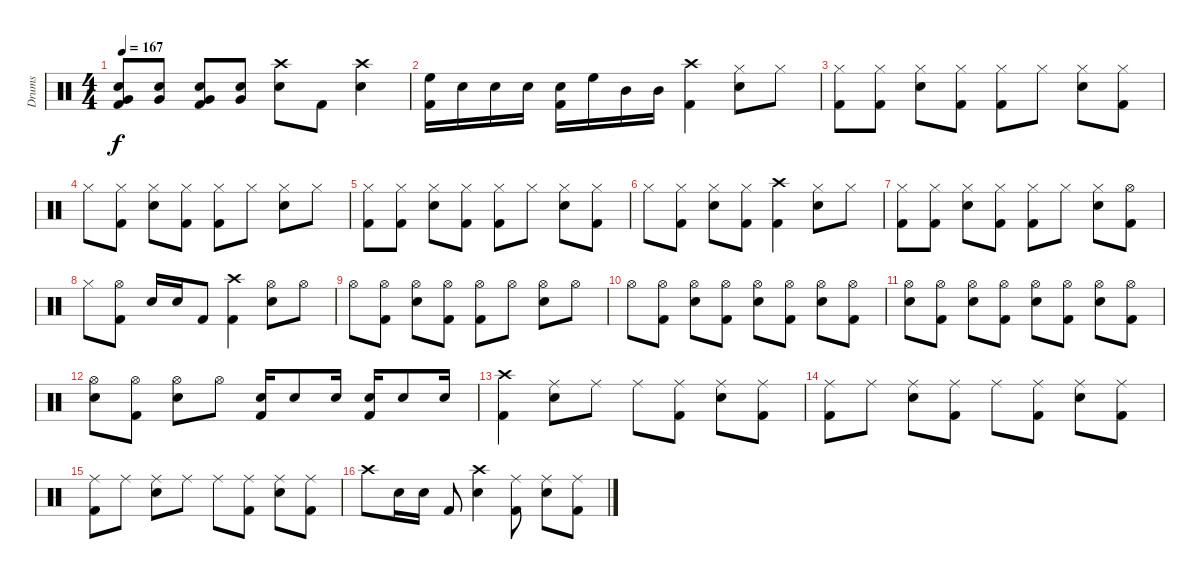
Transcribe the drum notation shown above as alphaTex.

\track ("Drums" "Drums") {instrument percussion}
\staff {score}
\articulation defaults
\ts (4 4)
\tempo 167
\clef neutral
\ks c
("Kick (hit) 2" "Snare (hit) 2" "Very Low Tom (hit)").8{dy f} ("Snare (hit) 2" "Very Low Tom (hit)").8 ("Kick (hit) 2" "Snare (hit) 2" "Very Low Tom (hit)").8 ("Snare (hit) 2" "Very Low Tom (hit)").8 ("Crash high (hit)" "Snare (hit) 2").8 "Kick (hit) 2".8 ("Crash high (hit)" "Snare (hit) 2").4 |
("Kick (hit) 2" "High Floor Tom (hit)").16 "Snare (hit) 2".16 "Snare (hit) 2".16 "Snare (hit) 2".16 ("Kick (hit) 2" "Snare (hit) 2").16 "High Floor Tom (hit)".16 "Mid Tom (hit)".16 "Mid Tom (hit)".16 ("Kick (hit) 2" "Crash high (hit)").4 ("Hi-Hat (closed)" "Snare (hit) 2").8 "Hi-Hat (closed)".8 |
("Hi-Hat (closed)" "Kick (hit) 2").8 ("Hi-Hat (closed)" "Kick (hit) 2").8 ("Hi-Hat (closed)" "Snare (hit) 2").8 ("Hi-Hat (closed)" "Kick (hit) 2").8 ("Kick (hit) 2" "Hi-Hat (closed)").8 "Hi-Hat (closed)".8 ("Snare (hit) 2" "Hi-Hat (closed)").8 ("Kick (hit) 2" "Hi-Hat (closed)").8 |
"Hi-Hat (closed)".8 ("Kick (hit) 2" "Hi-Hat (closed)").8 ("Snare (hit) 2" "Hi-Hat (closed)").8 ("Kick (hit) 2" "Hi-Hat (closed)").8 ("Kick (hit) 2" "Hi-Hat (closed)").8 "Hi-Hat (closed)".8 ("Snare (hit) 2" "Hi-Hat (closed)").8 "Hi-Hat (closed)".8 |
("Hi-Hat (closed)" "Kick (hit) 2").8 ("Kick (hit) 2" "Hi-Hat (closed)").8 ("Snare (hit) 2" "Hi-Hat (closed)").8 ("Kick (hit) 2" "Hi-Hat (closed)").8 ("Kick (hit) 2" "Hi-Hat (closed)").8 "Hi-Hat (closed)".8 ("Snare (hit) 2" "Hi-Hat (closed)").8 ("Kick (hit) 2" "Hi-Hat (closed)").8 |
"Hi-Hat (closed)".8 ("Kick (hit) 2" "Hi-Hat (closed)").8 ("Snare (hit) 2" "Hi-Hat (closed)").8 ("Kick (hit) 2" "Hi-Hat (closed)").8 ("Crash high (hit)" "Kick (hit) 2").4 ("Snare (hit) 2" "Hi-Hat (closed)").8 "Hi-Hat (closed)".8 |
("Kick (hit) 2" "Hi-Hat (closed)").8 ("Kick (hit) 2" "Hi-Hat (closed)").8 ("Snare (hit) 2" "Hi-Hat (closed)").8 ("Kick (hit) 2" "Hi-Hat (closed)").8 ("Kick (hit) 2" "Hi-Hat (closed)").8 "Hi-Hat (closed)".8 ("Snare (hit) 2" "Hi-Hat (closed)").8 ("Hi-Hat (open)" "Kick (hit) 2").8 |
"Hi-Hat (closed)".8 ("Hi-Hat (open)" "Kick (hit) 2").8 "Snare (hit) 2".16 "Snare (hit) 2".16 "Kick (hit) 2".8 ("Kick (hit) 2" "Crash high (hit)").4 ("Hi-Hat (open)" "Snare (hit) 2").8 "Hi-Hat (open)".8 |
"Hi-Hat (open)".8 ("Kick (hit) 2" "Hi-Hat (open)").8 ("Snare (hit) 2" "Hi-Hat (open)").8 ("Kick (hit) 2" "Hi-Hat (open)").8 ("Kick (hit) 2" "Hi-Hat (open)").8 "Hi-Hat (open)".8 ("Snare (hit) 2" "Hi-Hat (open)").8 "Hi-Hat (open)".8 |
"Hi-Hat (open)".8 ("Kick (hit) 2" "Hi-Hat (open)").8 ("Snare (hit) 2" "Hi-Hat (open)").8 ("Kick (hit) 2" "Hi-Hat (open)").8 ("Snare (hit) 2" "Hi-Hat (open)").8 ("Kick (hit) 2" "Hi-Hat (open)").8 ("Snare (hit) 2" "Hi-Hat (open)").8 ("Kick (hit) 2" "Hi-Hat (open)").8 |
("Snare (hit) 2" "Hi-Hat (open)").8 ("Kick (hit) 2" "Hi-Hat (open)").8 ("Snare (hit) 2" "Hi-Hat (open)").8 ("Kick (hit) 2" "Hi-Hat (open)").8 ("Snare (hit) 2" "Hi-Hat (open)").8 ("Kick (hit) 2" "Hi-Hat (open)").8 ("Snare (hit) 2" "Hi-Hat (open)").8 ("Kick (hit) 2" "Hi-Hat (open)").8 |
("Snare (hit) 2" "Hi-Hat (open)").8 ("Kick (hit) 2" "Hi-Hat (open)").8 ("Snare (hit) 2" "Hi-Hat (open)").8 "Hi-Hat (open)".8 ("Snare (hit) 2" "Kick (hit) 2").16 "Snare (hit) 2".8 "Snare (hit) 2".16 ("Snare (hit) 2" "Kick (hit) 2").16 "Snare (hit) 2".8 "Snare (hit) 2".16 |
("Kick (hit) 2" "Crash high (hit)").4 ("Ride (middle)" "Snare (hit) 2").8 "Ride (middle)".8 "Ride (middle)".8 ("Ride (middle)" "Kick (hit) 2").8 ("Ride (middle)" "Snare (hit) 2").8 ("Ride (middle)" "Kick (hit) 2").8 |
("Kick (hit) 2" "Ride (middle)").8 "Ride (middle)".8 ("Snare (hit) 2" "Ride (middle)").8 ("Kick (hit) 2" "Ride (middle)").8 "Ride (middle)".8 ("Kick (hit) 2" "Ride (middle)").8 ("Snare (hit) 2" "Ride (middle)").8 ("Kick (hit) 2" "Ride (middle)").8 |
("Kick (hit) 2" "Ride (middle)").8 "Ride (middle)".8 ("Snare (hit) 2" "Ride (middle)").8 "Ride (middle)".8 "Ride (middle)".8 ("Kick (hit) 2" "Ride (middle)").8 ("Snare (hit) 2" "Ride (middle)").8 ("Kick (hit) 2" "Ride (middle)").8 |
"Crash high (hit)".8 "Snare (hit) 2".16 "Snare (hit) 2".16 "Kick (hit) 2".8 ("Crash high (hit)" "Snare (hit) 2").4 ("Ride (middle)" "Kick (hit) 2").8 ("Ride (middle)" "Snare (hit) 2").8 ("Ride (middle)" "Kick (hit) 2").8
